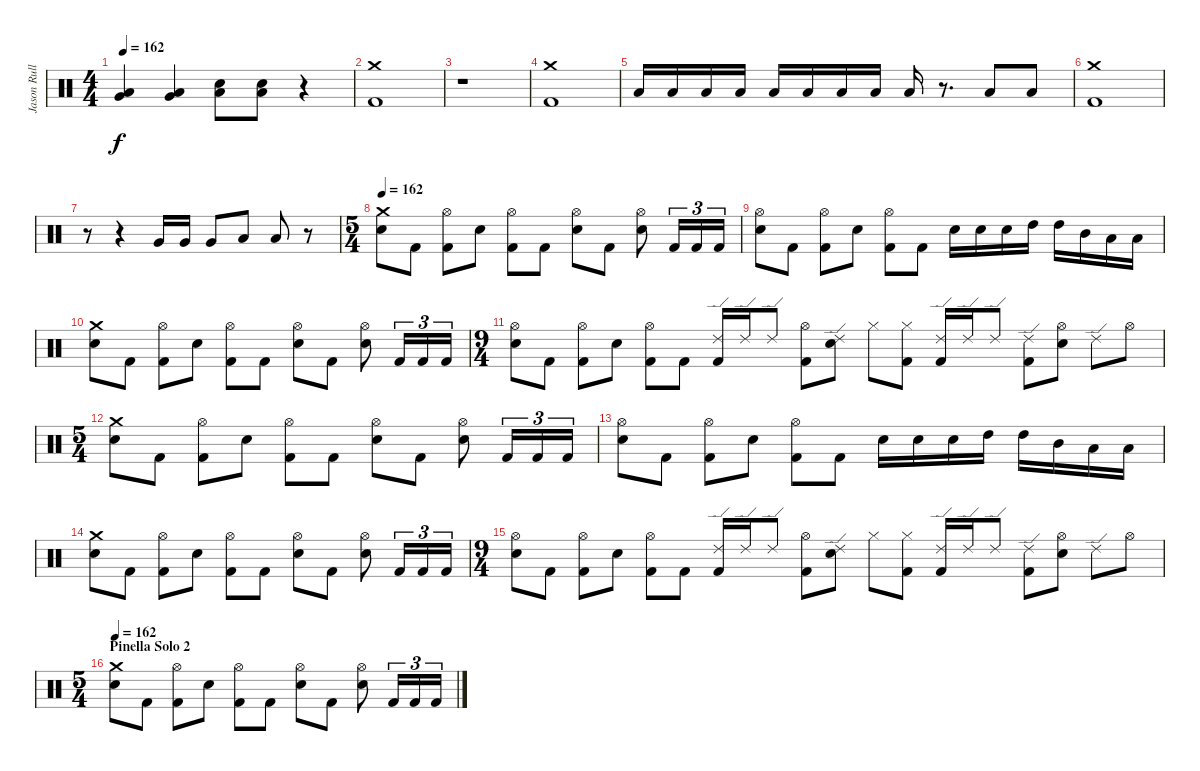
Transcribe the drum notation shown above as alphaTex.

\track ("Jason Rullo" "Jason Rull") {instrument percussion}
\staff {score}
\articulation defaults
\ts (4 4)
\tempo 162
\clef neutral
\ks c
("Low Floor Tom (hit)" "Very Low Tom (hit)").4{dy f} ("Very Low Tom (hit)" "Low Floor Tom (hit)").4 ("Low Floor Tom (hit)" "Electric Snare (hit)").8 ("Low Floor Tom (hit)" "Electric Snare (hit)").8 r.4 |
("Crash medium (hit)" "Kick (hit) 2").1 |
r.1 |
("Crash medium (hit)" "Kick (hit) 2").1 |
"Low Floor Tom (hit)".16{volume 0} "Low Floor Tom (hit)".16{volume 2} "Low Floor Tom (hit)".16{volume 4} "Low Floor Tom (hit)".16{volume 5} "Low Floor Tom (hit)".16{volume 7} "Low Floor Tom (hit)".16{volume 9} "Low Floor Tom (hit)".16{volume 11} "Low Floor Tom (hit)".16{volume 12} "Low Floor Tom (hit)".16{volume 14} r.8{d} "Low Floor Tom (hit)".8{volume 16} "Low Floor Tom (hit)".8 |
("Crash medium (hit)" "Kick (hit) 2").1 |
r.8 r.4 "Very Low Tom (hit)".16 "Very Low Tom (hit)".16 "Very Low Tom (hit)".8 "Low Tom (hit)".8 "Low Tom (hit)".8 r.8 |
\ts (5 4)
\tempo 162
("Crash medium (hit)" "Electric Snare (hit)").8 "Kick (hit) 2".8 ("Hi-Hat (open)" "Kick (hit) 2").8 "Electric Snare (hit)".8 ("Hi-Hat (open)" "Kick (hit) 2").8 "Kick (hit) 2".8 ("Hi-Hat (open)" "Electric Snare (hit)").8 "Kick (hit) 2".8 ("Hi-Hat (open)" "Electric Snare (hit)").8 "Kick (hit) 2".16{tu (3 2)} "Kick (hit) 2".16{tu (3 2)} "Kick (hit) 2".16{tu (3 2)} |
("Hi-Hat (open)" "Electric Snare (hit)").8 "Kick (hit) 2".8 ("Hi-Hat (open)" "Kick (hit) 2").8 "Electric Snare (hit)".8 ("Hi-Hat (open)" "Kick (hit) 2").8 "Kick (hit) 2".8 "Electric Snare (hit)".16 "Electric Snare (hit)".16 "Electric Snare (hit)".16 "High Tom (hit)".16 "High Tom (hit)".16 "Mid Tom (hit)".16 "Low Tom (hit)".16 "Low Tom (hit)".16 |
("Crash medium (hit)" "Electric Snare (hit)").8 "Kick (hit) 2".8 ("Hi-Hat (open)" "Kick (hit) 2").8 "Electric Snare (hit)".8 ("Hi-Hat (open)" "Kick (hit) 2").8 "Kick (hit) 2".8 ("Hi-Hat (open)" "Electric Snare (hit)").8 "Kick (hit) 2".8 ("Hi-Hat (open)" "Electric Snare (hit)").8 "Kick (hit) 2".16{tu (3 2)} "Kick (hit) 2".16{tu (3 2)} "Kick (hit) 2".16{tu (3 2)} |
\ts (9 4)
("Hi-Hat (open)" "Electric Snare (hit)").8 "Kick (hit) 2".8 ("Hi-Hat (open)" "Kick (hit) 2").8 "Electric Snare (hit)".8 ("Hi-Hat (open)" "Kick (hit) 2").8 "Kick (hit) 2".8 ("Ride (edge) 2" "Kick (hit) 2").16 "Ride (edge) 2".16 "Ride (edge) 2".8 ("Hi-Hat (open)" "Kick (hit) 2").8 ("Ride (edge) 2" "Electric Snare (hit)").8 "Hi-Hat (closed)".8 ("Hi-Hat (closed)" "Kick (hit) 2").8 ("Ride (edge) 2" "Kick (hit) 2").16 "Ride (edge) 2".16 "Ride (edge) 2".8 ("Ride (edge) 2" "Kick (hit) 2").8 ("Hi-Hat (open)" "Electric Snare (hit)").8 "Ride (edge) 2".8 "Hi-Hat (open)".8 |
\ts (5 4)
("Crash medium (hit)" "Electric Snare (hit)").8 "Kick (hit) 2".8 ("Hi-Hat (open)" "Kick (hit) 2").8 "Electric Snare (hit)".8 ("Hi-Hat (open)" "Kick (hit) 2").8 "Kick (hit) 2".8 ("Hi-Hat (open)" "Electric Snare (hit)").8 "Kick (hit) 2".8 ("Hi-Hat (open)" "Electric Snare (hit)").8 "Kick (hit) 2".16{tu (3 2)} "Kick (hit) 2".16{tu (3 2)} "Kick (hit) 2".16{tu (3 2)} |
("Hi-Hat (open)" "Electric Snare (hit)").8 "Kick (hit) 2".8 ("Hi-Hat (open)" "Kick (hit) 2").8 "Electric Snare (hit)".8 ("Hi-Hat (open)" "Kick (hit) 2").8 "Kick (hit) 2".8 "Electric Snare (hit)".16 "Electric Snare (hit)".16 "Electric Snare (hit)".16 "High Tom (hit)".16 "High Tom (hit)".16 "Mid Tom (hit)".16 "Low Tom (hit)".16 "Low Tom (hit)".16 |
("Crash medium (hit)" "Electric Snare (hit)").8 "Kick (hit) 2".8 ("Hi-Hat (open)" "Kick (hit) 2").8 "Electric Snare (hit)".8 ("Hi-Hat (open)" "Kick (hit) 2").8 "Kick (hit) 2".8 ("Hi-Hat (open)" "Electric Snare (hit)").8 "Kick (hit) 2".8 ("Hi-Hat (open)" "Electric Snare (hit)").8 "Kick (hit) 2".16{tu (3 2)} "Kick (hit) 2".16{tu (3 2)} "Kick (hit) 2".16{tu (3 2)} |
\ts (9 4)
("Hi-Hat (open)" "Electric Snare (hit)").8 "Kick (hit) 2".8 ("Hi-Hat (open)" "Kick (hit) 2").8 "Electric Snare (hit)".8 ("Hi-Hat (open)" "Kick (hit) 2").8 "Kick (hit) 2".8 ("Ride (edge) 2" "Kick (hit) 2").16 "Ride (edge) 2".16 "Ride (edge) 2".8 ("Hi-Hat (open)" "Kick (hit) 2").8 ("Ride (edge) 2" "Electric Snare (hit)").8 "Hi-Hat (closed)".8 ("Hi-Hat (closed)" "Kick (hit) 2").8 ("Ride (edge) 2" "Kick (hit) 2").16 "Ride (edge) 2".16 "Ride (edge) 2".8 ("Ride (edge) 2" "Kick (hit) 2").8 ("Hi-Hat (open)" "Electric Snare (hit)").8 "Ride (edge) 2".8 "Hi-Hat (open)".8 |
\ts (5 4)
\section ("" "Pinella Solo 2")
\tempo 162
("Crash medium (hit)" "Electric Snare (hit)").8 "Kick (hit) 2".8 ("Hi-Hat (open)" "Kick (hit) 2").8 "Electric Snare (hit)".8 ("Hi-Hat (open)" "Kick (hit) 2").8 "Kick (hit) 2".8 ("Hi-Hat (open)" "Electric Snare (hit)").8 "Kick (hit) 2".8 ("Hi-Hat (open)" "Electric Snare (hit)").8 "Kick (hit) 2".16{tu (3 2)} "Kick (hit) 2".16{tu (3 2)} "Kick (hit) 2".16{tu (3 2)}
